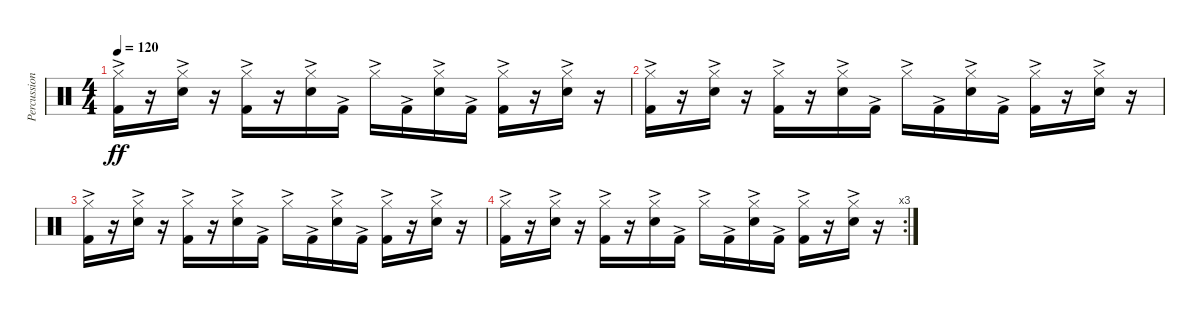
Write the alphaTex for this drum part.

\track ("Percussion" "Percussion") {instrument percussion}
\staff {score}
\articulation defaults
\ts (4 4)
\tempo 120
\clef neutral
\ks c
("Hi-Hat (closed)"{ac} "Kick (hit) 2"{ac}).16{dy ff} r.16 ("Hi-Hat (closed)"{ac} "Snare (hit) 2"{ac}).16 r.16 ("Hi-Hat (closed)"{ac} "Kick (hit) 2"{ac}).16 r.16 ("Hi-Hat (closed)"{ac} "Snare (hit) 2"{ac}).16 "Kick (hit) 2"{ac}.16 "Hi-Hat (closed)"{ac}.16 "Kick (hit) 2"{ac}.16 ("Hi-Hat (closed)"{ac} "Snare (hit) 2"{ac}).16 "Kick (hit) 2"{ac}.16 ("Hi-Hat (closed)"{ac} "Kick (hit) 2"{ac}).16 r.16 ("Hi-Hat (closed)"{ac} "Snare (hit) 2"{ac}).16 r.16 |
("Hi-Hat (closed)"{ac} "Kick (hit) 2"{ac}).16 r.16 ("Hi-Hat (closed)"{ac} "Snare (hit) 2"{ac}).16 r.16 ("Hi-Hat (closed)"{ac} "Kick (hit) 2"{ac}).16 r.16 ("Hi-Hat (closed)"{ac} "Snare (hit) 2"{ac}).16 "Kick (hit) 2"{ac}.16 "Hi-Hat (closed)"{ac}.16 "Kick (hit) 2"{ac}.16 ("Hi-Hat (closed)"{ac} "Snare (hit) 2"{ac}).16 "Kick (hit) 2"{ac}.16 ("Hi-Hat (closed)"{ac} "Kick (hit) 2"{ac}).16 r.16 ("Hi-Hat (closed)"{ac} "Snare (hit) 2"{ac}).16 r.16 |
("Hi-Hat (closed)"{ac} "Kick (hit) 2"{ac}).16 r.16 ("Hi-Hat (closed)"{ac} "Snare (hit) 2"{ac}).16 r.16 ("Hi-Hat (closed)"{ac} "Kick (hit) 2"{ac}).16 r.16 ("Hi-Hat (closed)"{ac} "Snare (hit) 2"{ac}).16 "Kick (hit) 2"{ac}.16 "Hi-Hat (closed)"{ac}.16 "Kick (hit) 2"{ac}.16 ("Hi-Hat (closed)"{ac} "Snare (hit) 2"{ac}).16 "Kick (hit) 2"{ac}.16 ("Hi-Hat (closed)"{ac} "Kick (hit) 2"{ac}).16 r.16 ("Hi-Hat (closed)"{ac} "Snare (hit) 2"{ac}).16 r.16 |
\rc 3
("Hi-Hat (closed)"{ac} "Kick (hit) 2"{ac}).16 r.16 ("Hi-Hat (closed)"{ac} "Snare (hit) 2"{ac}).16 r.16 ("Hi-Hat (closed)"{ac} "Kick (hit) 2"{ac}).16 r.16 ("Hi-Hat (closed)"{ac} "Snare (hit) 2"{ac}).16 "Kick (hit) 2"{ac}.16 "Hi-Hat (closed)"{ac}.16 "Kick (hit) 2"{ac}.16 ("Hi-Hat (closed)"{ac} "Snare (hit) 2"{ac}).16 "Kick (hit) 2"{ac}.16 ("Hi-Hat (closed)"{ac} "Kick (hit) 2"{ac}).16 r.16 ("Hi-Hat (closed)"{ac} "Snare (hit) 2"{ac}).16 r.16
